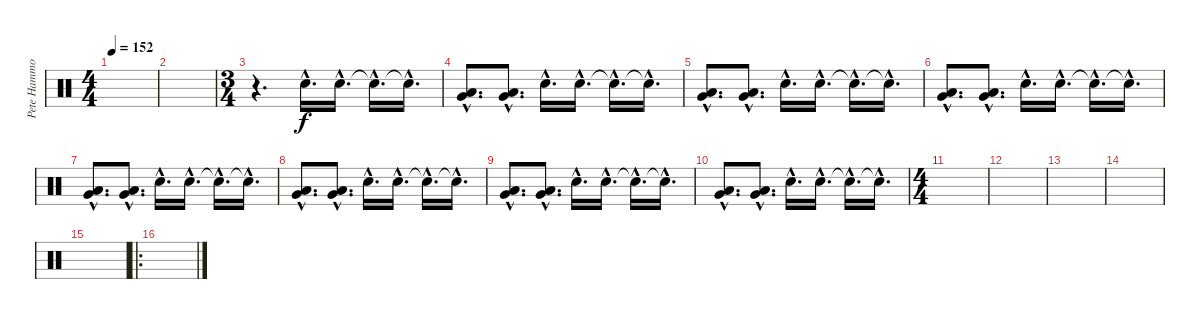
\track ("Pete Hammoura 2" "Pete Hammo") {instrument percussion}
\staff {score}
\articulation defaults
\ts (4 4)
\tempo 152
\clef neutral
\ks c
|
|
\ts (3 4)
r.4{d} "Electric Snare (hit)"{hac}.16{d} "Electric Snare (hit)"{hac}.16{d} "Snare (hit)"{hac t}.16{d} "Snare (hit)"{hac t}.16{d} |
("Very Low Tom (hit)"{hac} "Low Tom (hit)"{hac}).8{d} ("Low Floor Tom (hit)"{hac} "Very Low Tom (hit)"{hac}).8{d} "Electric Snare (hit)"{hac}.16{d} "Electric Snare (hit)"{hac}.16{d} "Snare (hit)"{hac t}.16{d} "Snare (hit)"{hac t}.16{d} |
("Very Low Tom (hit)"{hac} "Low Tom (hit)"{hac}).8{d} ("Low Floor Tom (hit)"{hac} "Very Low Tom (hit)"{hac}).8{d} "Electric Snare (hit)"{hac}.16{d} "Electric Snare (hit)"{hac}.16{d} "Snare (hit)"{hac t}.16{d} "Snare (hit)"{hac t}.16{d} |
("Very Low Tom (hit)"{hac} "Low Tom (hit)"{hac}).8{d} ("Low Floor Tom (hit)"{hac} "Very Low Tom (hit)"{hac}).8{d} "Electric Snare (hit)"{hac}.16{d} "Electric Snare (hit)"{hac}.16{d} "Snare (hit)"{hac t}.16{d} "Snare (hit)"{hac t}.16{d} |
("Very Low Tom (hit)"{hac} "Low Tom (hit)"{hac}).8{d} ("Low Floor Tom (hit)"{hac} "Very Low Tom (hit)"{hac}).8{d} "Electric Snare (hit)"{hac}.16{d} "Electric Snare (hit)"{hac}.16{d} "Snare (hit)"{hac t}.16{d} "Snare (hit)"{hac t}.16{d} |
("Very Low Tom (hit)"{hac} "Low Tom (hit)"{hac}).8{d} ("Low Floor Tom (hit)"{hac} "Very Low Tom (hit)"{hac}).8{d} "Electric Snare (hit)"{hac}.16{d} "Electric Snare (hit)"{hac}.16{d} "Snare (hit)"{hac t}.16{d} "Snare (hit)"{hac t}.16{d} |
("Very Low Tom (hit)"{hac} "Low Tom (hit)"{hac}).8{d} ("Low Floor Tom (hit)"{hac} "Very Low Tom (hit)"{hac}).8{d} "Electric Snare (hit)"{hac}.16{d} "Electric Snare (hit)"{hac}.16{d} "Snare (hit)"{hac t}.16{d} "Snare (hit)"{hac t}.16{d} |
("Very Low Tom (hit)"{hac} "Low Tom (hit)"{hac}).8{d} ("Low Floor Tom (hit)"{hac} "Very Low Tom (hit)"{hac}).8{d} "Electric Snare (hit)"{hac}.16{d} "Electric Snare (hit)"{hac}.16{d} "Snare (hit)"{hac t}.16{d} "Snare (hit)"{hac t}.16{d} |
\ts (4 4)
|
|
|
|
|
\ro
